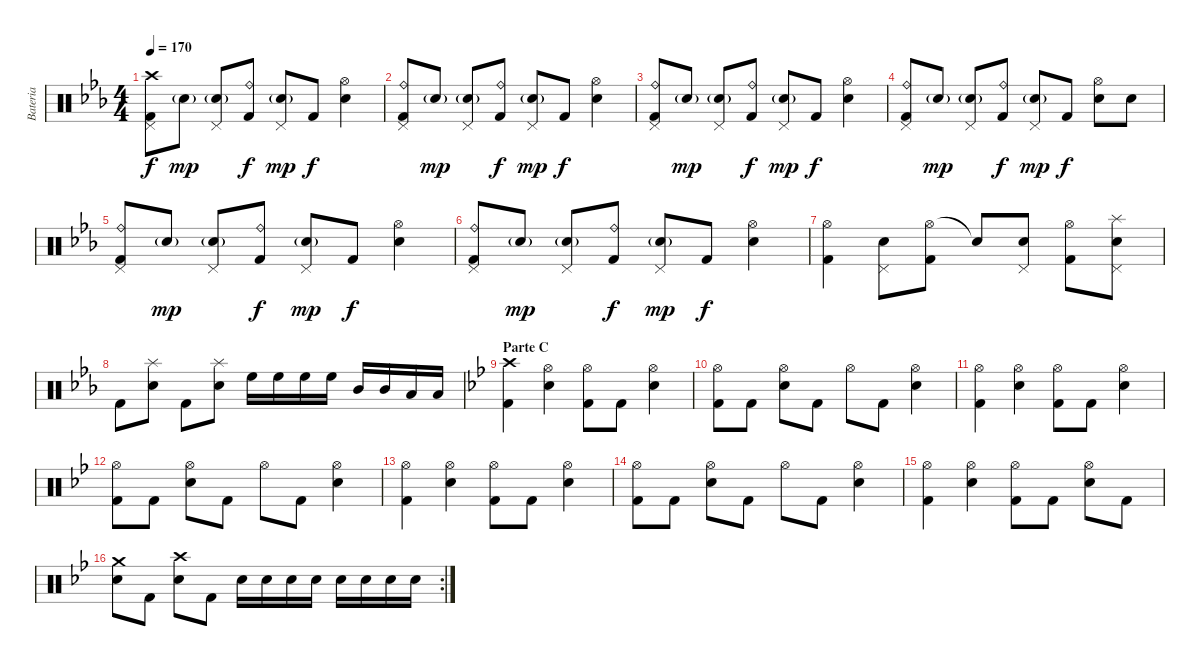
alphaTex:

\track ("Bateria" "Bateria") {instrument percussion}
\staff {score}
\articulation defaults
\ts (4 4)
\tempo 170
\clef neutral
\ks cminor
("Crash high (hit)" "Pedal Hi-Hat (hit)" "Kick (hit) 2").8{dy f} "Electric Snare (hit)"{g}.8{dy mp} ("Electric Snare (hit)"{g} "Pedal Hi-Hat (hit)").8 ("Ride (bell)" "Kick (hit) 2").8{dy f} ("Electric Snare (hit)"{g} "Pedal Hi-Hat (hit)").8{dy mp} "Kick (hit) 2".8{dy f} ("Hi-Hat (open)" "Electric Snare (hit)").4 |
("Ride (bell)" "Pedal Hi-Hat (hit)" "Kick (hit) 2").8 "Electric Snare (hit)"{g}.8{dy mp} ("Electric Snare (hit)"{g} "Pedal Hi-Hat (hit)").8 ("Ride (bell)" "Kick (hit) 2").8{dy f} ("Electric Snare (hit)"{g} "Pedal Hi-Hat (hit)").8{dy mp} "Kick (hit) 2".8{dy f} ("Hi-Hat (open)" "Electric Snare (hit)").4 |
("Ride (bell)" "Pedal Hi-Hat (hit)" "Kick (hit) 2").8 "Electric Snare (hit)"{g}.8{dy mp} ("Electric Snare (hit)"{g} "Pedal Hi-Hat (hit)").8 ("Ride (bell)" "Kick (hit) 2").8{dy f} ("Electric Snare (hit)"{g} "Pedal Hi-Hat (hit)").8{dy mp} "Kick (hit) 2".8{dy f} ("Hi-Hat (open)" "Electric Snare (hit)").4 |
("Ride (bell)" "Pedal Hi-Hat (hit)" "Kick (hit) 2").8 "Electric Snare (hit)"{g}.8{dy mp} ("Electric Snare (hit)"{g} "Pedal Hi-Hat (hit)").8 ("Ride (bell)" "Kick (hit) 2").8{dy f} ("Electric Snare (hit)"{g} "Pedal Hi-Hat (hit)").8{dy mp} "Kick (hit) 2".8{dy f} ("Hi-Hat (open)" "Electric Snare (hit)").8 "Electric Snare (hit)".8 |
("Ride (bell)" "Pedal Hi-Hat (hit)" "Kick (hit) 2").8 "Electric Snare (hit)"{g}.8{dy mp} ("Electric Snare (hit)"{g} "Pedal Hi-Hat (hit)").8 ("Ride (bell)" "Kick (hit) 2").8{dy f} ("Electric Snare (hit)"{g} "Pedal Hi-Hat (hit)").8{dy mp} "Kick (hit) 2".8{dy f} ("Hi-Hat (open)" "Electric Snare (hit)").4 |
("Ride (bell)" "Pedal Hi-Hat (hit)" "Kick (hit) 2").8 "Electric Snare (hit)"{g}.8{dy mp} ("Electric Snare (hit)"{g} "Pedal Hi-Hat (hit)").8 ("Ride (bell)" "Kick (hit) 2").8{dy f} ("Electric Snare (hit)"{g} "Pedal Hi-Hat (hit)").8{dy mp} "Kick (hit) 2".8{dy f} ("Hi-Hat (open)" "Electric Snare (hit)").4 |
("Hi-Hat (open)" "Kick (hit) 2").4 ("Electric Snare (hit)" "Pedal Hi-Hat (hit)").8 ("Hi-Hat (open)" "Kick (hit) 2").8 "Snare (hit)"{t}.8 ("Electric Snare (hit)" "Pedal Hi-Hat (hit)").8 ("Hi-Hat (open)" "Kick (hit) 2").8 ("Splash (hit)" "Electric Snare (hit)" "Pedal Hi-Hat (hit)").8 |
"Kick (hit) 2".8 ("Splash (hit)" "Electric Snare (hit)").8 "Kick (hit) 2".8 ("Splash (hit)" "Electric Snare (hit)").8 "High Floor Tom (hit)".16 "High Floor Tom (hit)".16 "High Floor Tom (hit)".16 "High Floor Tom (hit)".16 "Mid Tom (hit)".16 "Mid Tom (hit)".16 "Low Tom (hit)".16 "Low Tom (hit)".16 |
\section ("" "Parte C")
\ks gminor
("Crash high (hit)" "Kick (hit) 2").4 ("Hi-Hat (open)" "Electric Snare (hit)").4 ("Hi-Hat (open)" "Kick (hit) 2").8 "Kick (hit) 2".8 ("Hi-Hat (open)" "Electric Snare (hit)").4 |
("Hi-Hat (open)" "Kick (hit) 2").8 "Kick (hit) 2".8 ("Hi-Hat (open)" "Electric Snare (hit)").8 "Kick (hit) 2".8 "Hi-Hat (open)".8 "Kick (hit) 2".8 ("Hi-Hat (open)" "Electric Snare (hit)").4 |
("Hi-Hat (open)" "Kick (hit) 2").4 ("Hi-Hat (open)" "Electric Snare (hit)").4 ("Hi-Hat (open)" "Kick (hit) 2").8 "Kick (hit) 2".8 ("Hi-Hat (open)" "Electric Snare (hit)").4 |
("Hi-Hat (open)" "Kick (hit) 2").8 "Kick (hit) 2".8 ("Hi-Hat (open)" "Electric Snare (hit)").8 "Kick (hit) 2".8 "Hi-Hat (open)".8 "Kick (hit) 2".8 ("Hi-Hat (open)" "Electric Snare (hit)").4 |
("Hi-Hat (open)" "Kick (hit) 2").4 ("Hi-Hat (open)" "Electric Snare (hit)").4 ("Hi-Hat (open)" "Kick (hit) 2").8 "Kick (hit) 2".8 ("Hi-Hat (open)" "Electric Snare (hit)").4 |
("Hi-Hat (open)" "Kick (hit) 2").8 "Kick (hit) 2".8 ("Hi-Hat (open)" "Electric Snare (hit)").8 "Kick (hit) 2".8 "Hi-Hat (open)".8 "Kick (hit) 2".8 ("Hi-Hat (open)" "Electric Snare (hit)").4 |
("Hi-Hat (open)" "Kick (hit) 2").4 ("Hi-Hat (open)" "Electric Snare (hit)").4 ("Hi-Hat (open)" "Kick (hit) 2").8 "Kick (hit) 2".8 ("Hi-Hat (open)" "Electric Snare (hit)").8 "Kick (hit) 2".8 |
\rc 2
("Crash medium (hit)" "Electric Snare (hit)").8 "Kick (hit) 2".8 ("Crash high (hit)" "Electric Snare (hit)").8 "Kick (hit) 2".8 "Electric Snare (hit)".16 "Electric Snare (hit)".16 "Electric Snare (hit)".16 "Electric Snare (hit)".16 "Electric Snare (hit)".16 "Electric Snare (hit)".16 "Electric Snare (hit)".16 "Electric Snare (hit)".16
